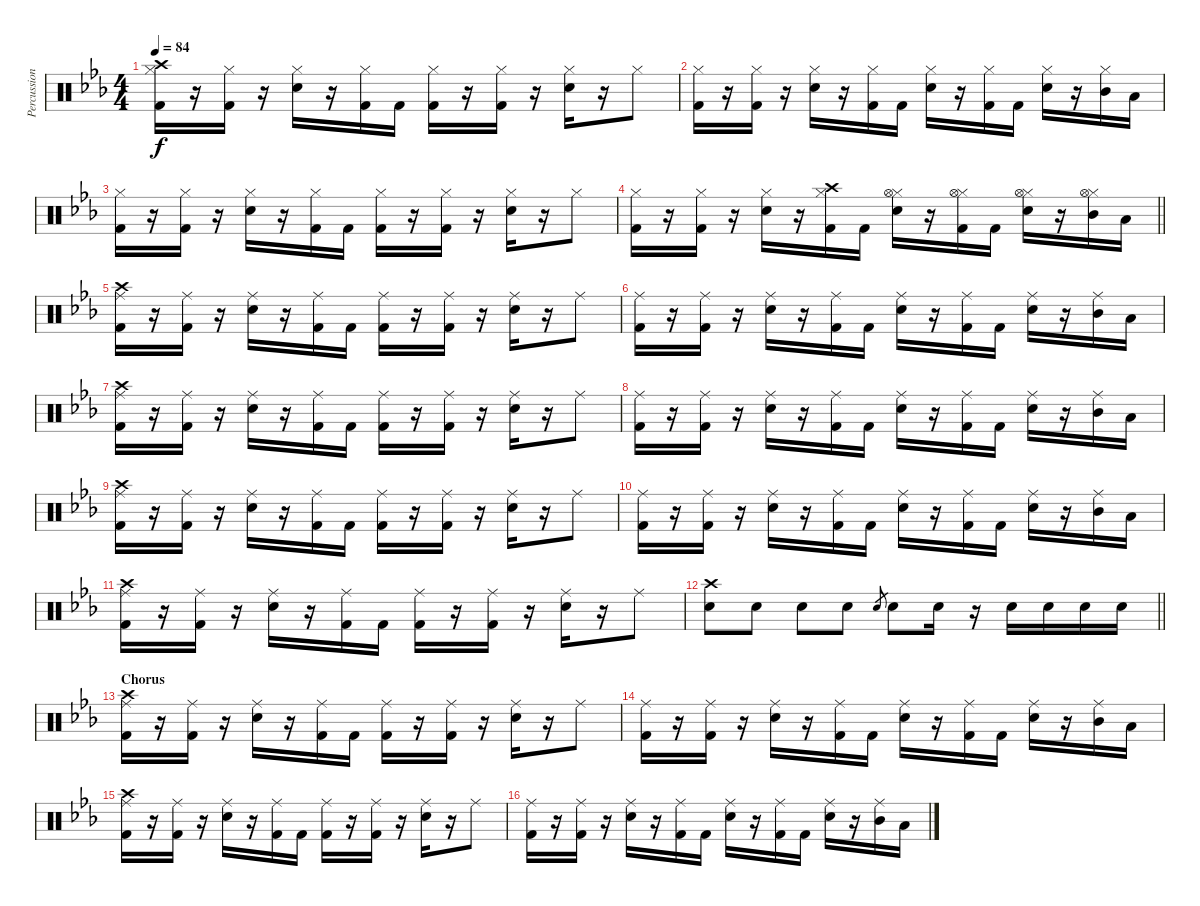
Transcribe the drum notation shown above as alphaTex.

\track ("Percussion" "Percussion") {instrument percussion}
\staff {score}
\articulation defaults
\ts (4 4)
\tempo 84
\clef neutral
\ks eb
("Hi-Hat (closed)" "Crash high (hit)" "Kick (hit) 2").16{dy f} r.16 ("Hi-Hat (closed)" "Kick (hit) 2").16 r.16 ("Hi-Hat (closed)" "Electric Snare (hit)").16 r.16 ("Hi-Hat (closed)" "Kick (hit) 2").16 "Kick (hit) 2".16 ("Hi-Hat (closed)" "Kick (hit) 2").16 r.16 ("Hi-Hat (closed)" "Kick (hit) 2").16 r.16 ("Hi-Hat (closed)" "Electric Snare (hit)").16 r.16 "Hi-Hat (closed)".8 |
("Hi-Hat (closed)" "Kick (hit) 2").16 r.16 ("Hi-Hat (closed)" "Kick (hit) 2").16 r.16 ("Hi-Hat (closed)" "Electric Snare (hit)").16 r.16 ("Hi-Hat (closed)" "Kick (hit) 2").16 "Kick (hit) 2".16 ("Hi-Hat (closed)" "Electric Snare (hit)").16 r.16 ("Hi-Hat (closed)" "Kick (hit) 2").16 "Kick (hit) 2".16 ("Hi-Hat (closed)" "Electric Snare (hit)").16 r.16 ("Hi-Hat (closed)" "Mid Tom (hit)").16 "Low Tom (hit)".16 |
("Hi-Hat (closed)" "Kick (hit) 2").16 r.16 ("Hi-Hat (closed)" "Kick (hit) 2").16 r.16 ("Hi-Hat (closed)" "Electric Snare (hit)").16 r.16 ("Hi-Hat (closed)" "Kick (hit) 2").16 "Kick (hit) 2".16 ("Hi-Hat (closed)" "Kick (hit) 2").16 r.16 ("Hi-Hat (closed)" "Kick (hit) 2").16 r.16 ("Hi-Hat (closed)" "Electric Snare (hit)").16 r.16 "Hi-Hat (closed)".8 |
\barLineRight lightlight
("Hi-Hat (closed)" "Kick (hit) 2").16 r.16 ("Hi-Hat (closed)" "Kick (hit) 2").16 r.16 ("Hi-Hat (closed)" "Electric Snare (hit)").16 r.16 ("Hi-Hat (closed)" "Crash high (hit)" "Kick (hit) 2").16 "Kick (hit) 2".16 ("Hi-Hat (closed)" "Hi-Hat (open)" "Electric Snare (hit)").16 r.16 ("Hi-Hat (closed)" "Hi-Hat (open)" "Kick (hit) 2").16 "Kick (hit) 2".16 ("Hi-Hat (closed)" "Hi-Hat (open)" "Electric Snare (hit)").16 r.16 ("Hi-Hat (closed)" "Hi-Hat (open)" "Mid Tom (hit)").16 "Low Tom (hit)".16 |
("Ride (middle)" "Crash high (hit)" "Kick (hit) 2").16 r.16 ("Ride (middle)" "Kick (hit) 2").16 r.16 ("Ride (middle)" "Electric Snare (hit)").16 r.16 ("Ride (middle)" "Kick (hit) 2").16 "Kick (hit) 2".16 ("Ride (middle)" "Kick (hit) 2").16 r.16 ("Ride (middle)" "Kick (hit) 2").16 r.16 ("Ride (middle)" "Electric Snare (hit)").16 r.16 "Ride (middle)".8 |
("Ride (middle)" "Kick (hit) 2").16 r.16 ("Ride (middle)" "Kick (hit) 2").16 r.16 ("Ride (middle)" "Electric Snare (hit)").16 r.16 ("Ride (middle)" "Kick (hit) 2").16 "Kick (hit) 2".16 ("Ride (middle)" "Electric Snare (hit)").16 r.16 ("Ride (middle)" "Kick (hit) 2").16 "Kick (hit) 2".16 ("Ride (middle)" "Electric Snare (hit)").16 r.16 ("Ride (middle)" "Mid Tom (hit)").16 "Low Tom (hit)".16 |
("Ride (middle)" "Crash high (hit)" "Kick (hit) 2").16 r.16 ("Ride (middle)" "Kick (hit) 2").16 r.16 ("Ride (middle)" "Electric Snare (hit)").16 r.16 ("Ride (middle)" "Kick (hit) 2").16 "Kick (hit) 2".16 ("Ride (middle)" "Kick (hit) 2").16 r.16 ("Ride (middle)" "Kick (hit) 2").16 r.16 ("Ride (middle)" "Electric Snare (hit)").16 r.16 "Ride (middle)".8 |
("Ride (middle)" "Kick (hit) 2").16 r.16 ("Ride (middle)" "Kick (hit) 2").16 r.16 ("Ride (middle)" "Electric Snare (hit)").16 r.16 ("Ride (middle)" "Kick (hit) 2").16 "Kick (hit) 2".16 ("Ride (middle)" "Electric Snare (hit)").16 r.16 ("Ride (middle)" "Kick (hit) 2").16 "Kick (hit) 2".16 ("Ride (middle)" "Electric Snare (hit)").16 r.16 ("Ride (middle)" "Mid Tom (hit)").16 "Low Tom (hit)".16 |
("Ride (middle)" "Crash high (hit)" "Kick (hit) 2").16 r.16 ("Ride (middle)" "Kick (hit) 2").16 r.16 ("Ride (middle)" "Electric Snare (hit)").16 r.16 ("Ride (middle)" "Kick (hit) 2").16 "Kick (hit) 2".16 ("Ride (middle)" "Kick (hit) 2").16 r.16 ("Ride (middle)" "Kick (hit) 2").16 r.16 ("Ride (middle)" "Electric Snare (hit)").16 r.16 "Ride (middle)".8 |
("Ride (middle)" "Kick (hit) 2").16 r.16 ("Ride (middle)" "Kick (hit) 2").16 r.16 ("Ride (middle)" "Electric Snare (hit)").16 r.16 ("Ride (middle)" "Kick (hit) 2").16 "Kick (hit) 2".16 ("Ride (middle)" "Electric Snare (hit)").16 r.16 ("Ride (middle)" "Kick (hit) 2").16 "Kick (hit) 2".16 ("Ride (middle)" "Electric Snare (hit)").16 r.16 ("Ride (middle)" "Mid Tom (hit)").16 "Low Tom (hit)".16 |
("Ride (middle)" "Crash high (hit)" "Kick (hit) 2").16 r.16 ("Ride (middle)" "Kick (hit) 2").16 r.16 ("Ride (middle)" "Electric Snare (hit)").16 r.16 ("Ride (middle)" "Kick (hit) 2").16 "Kick (hit) 2".16 ("Ride (middle)" "Kick (hit) 2").16 r.16 ("Ride (middle)" "Kick (hit) 2").16 r.16 ("Ride (middle)" "Electric Snare (hit)").16 r.16 "Ride (middle)".8 |
\barLineRight lightlight
("Crash high (hit)" "Electric Snare (hit)").8 "Electric Snare (hit)".8 "Electric Snare (hit)".8 "Electric Snare (hit)".8 "Electric Snare (hit)".8{gr} "Electric Snare (hit)".8 "Electric Snare (hit)".16 r.16 "Electric Snare (hit)".16 "Electric Snare (hit)".16 "Electric Snare (hit)".16 "Electric Snare (hit)".16 |
\section ("" "Chorus")
("Ride (middle)" "Crash high (hit)" "Kick (hit) 2").16 r.16 ("Ride (middle)" "Kick (hit) 2").16 r.16 ("Ride (middle)" "Electric Snare (hit)").16 r.16 ("Ride (middle)" "Kick (hit) 2").16 "Kick (hit) 2".16 ("Ride (middle)" "Kick (hit) 2").16 r.16 ("Ride (middle)" "Kick (hit) 2").16 r.16 ("Ride (middle)" "Electric Snare (hit)").16 r.16 "Ride (middle)".8 |
("Ride (middle)" "Kick (hit) 2").16 r.16 ("Ride (middle)" "Kick (hit) 2").16 r.16 ("Ride (middle)" "Electric Snare (hit)").16 r.16 ("Ride (middle)" "Kick (hit) 2").16 "Kick (hit) 2".16 ("Ride (middle)" "Electric Snare (hit)").16 r.16 ("Ride (middle)" "Kick (hit) 2").16 "Kick (hit) 2".16 ("Ride (middle)" "Electric Snare (hit)").16 r.16 ("Ride (middle)" "Mid Tom (hit)").16 "Low Tom (hit)".16 |
("Ride (middle)" "Crash high (hit)" "Kick (hit) 2").16 r.16 ("Ride (middle)" "Kick (hit) 2").16 r.16 ("Ride (middle)" "Electric Snare (hit)").16 r.16 ("Ride (middle)" "Kick (hit) 2").16 "Kick (hit) 2".16 ("Ride (middle)" "Kick (hit) 2").16 r.16 ("Ride (middle)" "Kick (hit) 2").16 r.16 ("Ride (middle)" "Electric Snare (hit)").16 r.16 "Ride (middle)".8 |
("Ride (middle)" "Kick (hit) 2").16 r.16 ("Ride (middle)" "Kick (hit) 2").16 r.16 ("Ride (middle)" "Electric Snare (hit)").16 r.16 ("Ride (middle)" "Kick (hit) 2").16 "Kick (hit) 2".16 ("Ride (middle)" "Electric Snare (hit)").16 r.16 ("Ride (middle)" "Kick (hit) 2").16 "Kick (hit) 2".16 ("Ride (middle)" "Electric Snare (hit)").16 r.16 ("Ride (middle)" "Mid Tom (hit)").16 "Low Tom (hit)".16
